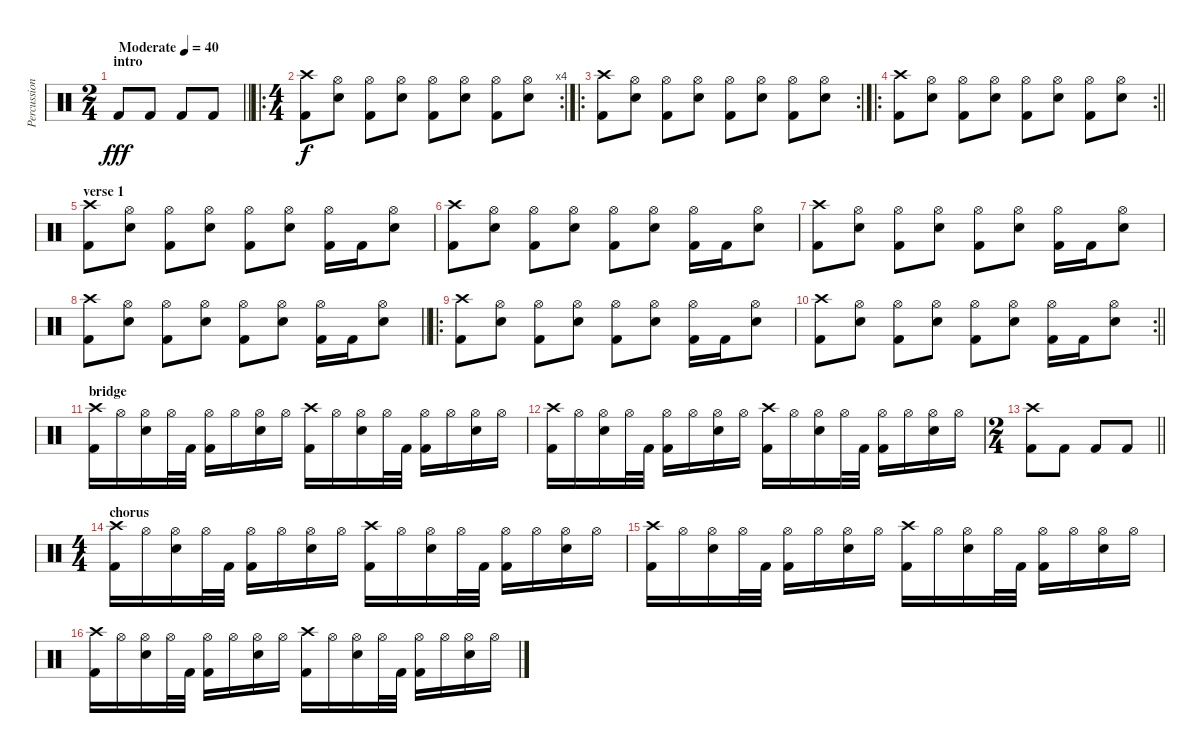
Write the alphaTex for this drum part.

\track ("Percussion" "Percussion") {instrument percussion}
\staff {score}
\articulation defaults
\ts (2 4)
\section ("" "intro")
\tempo (40 "Moderate")
\clef neutral
\barLineRight lightlight
\ks c "Kick (hit) 2".8{dy fff} "Kick (hit) 2".8 "Kick (hit) 2".8 "Kick (hit) 2".8
|
\ro
\rc 4
\ts (4 4)
("Crash high (hit)" "Kick (hit) 2").8{dy f} ("Hi-Hat (open)" "Snare (hit) 2").8 ("Hi-Hat (open)" "Kick (hit) 2").8 ("Hi-Hat (open)" "Snare (hit) 2").8 ("Hi-Hat (open)" "Kick (hit) 2").8 ("Hi-Hat (open)" "Snare (hit) 2").8 ("Hi-Hat (open)" "Kick (hit) 2").8 ("Hi-Hat (open)" "Snare (hit) 2").8 |
\ro
\rc 2
("Crash high (hit)" "Kick (hit) 2").8 ("Hi-Hat (open)" "Snare (hit) 2").8 ("Hi-Hat (open)" "Kick (hit) 2").8 ("Hi-Hat (open)" "Snare (hit) 2").8 ("Hi-Hat (open)" "Kick (hit) 2").8 ("Hi-Hat (open)" "Snare (hit) 2").8 ("Hi-Hat (open)" "Kick (hit) 2").8 ("Hi-Hat (open)" "Snare (hit) 2").8 |
\ro
\rc 2
\barLineRight lightlight
("Crash high (hit)" "Kick (hit) 2").8 ("Hi-Hat (open)" "Snare (hit) 2").8 ("Hi-Hat (open)" "Kick (hit) 2").8 ("Hi-Hat (open)" "Snare (hit) 2").8 ("Hi-Hat (open)" "Kick (hit) 2").8 ("Hi-Hat (open)" "Snare (hit) 2").8 ("Hi-Hat (open)" "Kick (hit) 2").8 ("Hi-Hat (open)" "Snare (hit) 2").8 |
\section ("" "verse 1")
("Crash high (hit)" "Kick (hit) 2").8 ("Hi-Hat (open)" "Snare (hit) 2").8 ("Hi-Hat (open)" "Kick (hit) 2").8 ("Hi-Hat (open)" "Snare (hit) 2").8 ("Hi-Hat (open)" "Kick (hit) 2").8 ("Hi-Hat (open)" "Snare (hit) 2").8 ("Hi-Hat (open)" "Kick (hit) 2").16 "Kick (hit) 2".16 ("Hi-Hat (open)" "Snare (hit) 2").8 |
("Crash high (hit)" "Kick (hit) 2").8 ("Hi-Hat (open)" "Snare (hit) 2").8 ("Hi-Hat (open)" "Kick (hit) 2").8 ("Hi-Hat (open)" "Snare (hit) 2").8 ("Hi-Hat (open)" "Kick (hit) 2").8 ("Hi-Hat (open)" "Snare (hit) 2").8 ("Hi-Hat (open)" "Kick (hit) 2").16 "Kick (hit) 2".16 ("Hi-Hat (open)" "Snare (hit) 2").8 |
("Crash high (hit)" "Kick (hit) 2").8 ("Hi-Hat (open)" "Snare (hit) 2").8 ("Hi-Hat (open)" "Kick (hit) 2").8 ("Hi-Hat (open)" "Snare (hit) 2").8 ("Hi-Hat (open)" "Kick (hit) 2").8 ("Hi-Hat (open)" "Snare (hit) 2").8 ("Hi-Hat (open)" "Kick (hit) 2").16 "Kick (hit) 2".16 ("Hi-Hat (open)" "Snare (hit) 2").8 |
\barLineRight lightlight
("Crash high (hit)" "Kick (hit) 2").8 ("Hi-Hat (open)" "Snare (hit) 2").8 ("Hi-Hat (open)" "Kick (hit) 2").8 ("Hi-Hat (open)" "Snare (hit) 2").8 ("Hi-Hat (open)" "Kick (hit) 2").8 ("Hi-Hat (open)" "Snare (hit) 2").8 ("Hi-Hat (open)" "Kick (hit) 2").16 "Kick (hit) 2".16 ("Hi-Hat (open)" "Snare (hit) 2").8 |
\ro
("Crash high (hit)" "Kick (hit) 2").8 ("Hi-Hat (open)" "Snare (hit) 2").8 ("Hi-Hat (open)" "Kick (hit) 2").8 ("Hi-Hat (open)" "Snare (hit) 2").8 ("Hi-Hat (open)" "Kick (hit) 2").8 ("Hi-Hat (open)" "Snare (hit) 2").8 ("Hi-Hat (open)" "Kick (hit) 2").16 "Kick (hit) 2".16 ("Hi-Hat (open)" "Snare (hit) 2").8 |
\rc 2
\barLineRight lightlight
("Crash high (hit)" "Kick (hit) 2").8 ("Hi-Hat (open)" "Snare (hit) 2").8 ("Hi-Hat (open)" "Kick (hit) 2").8 ("Hi-Hat (open)" "Snare (hit) 2").8 ("Hi-Hat (open)" "Kick (hit) 2").8 ("Hi-Hat (open)" "Snare (hit) 2").8 ("Hi-Hat (open)" "Kick (hit) 2").16 "Kick (hit) 2".16 ("Hi-Hat (open)" "Snare (hit) 2").8 |
\section ("" "bridge")
("Crash high (hit)" "Kick (hit) 2").16 "Hi-Hat (open)".16 ("Hi-Hat (open)" "Snare (hit) 2").16 "Hi-Hat (open)".32 "Kick (hit) 2".32 ("Hi-Hat (open)" "Kick (hit) 2").16 "Hi-Hat (open)".16 ("Hi-Hat (open)" "Snare (hit) 2").16 "Hi-Hat (open)".16 ("Crash high (hit)" "Kick (hit) 2").16 "Hi-Hat (open)".16 ("Hi-Hat (open)" "Snare (hit) 2").16 "Hi-Hat (open)".32 "Kick (hit) 2".32 ("Hi-Hat (open)" "Kick (hit) 2").16 "Hi-Hat (open)".16 ("Hi-Hat (open)" "Snare (hit) 2").16 "Hi-Hat (open)".16 |
("Crash high (hit)" "Kick (hit) 2").16 "Hi-Hat (open)".16 ("Hi-Hat (open)" "Snare (hit) 2").16 "Hi-Hat (open)".32 "Kick (hit) 2".32 ("Hi-Hat (open)" "Kick (hit) 2").16 "Hi-Hat (open)".16 ("Hi-Hat (open)" "Snare (hit) 2").16 "Hi-Hat (open)".16 ("Crash high (hit)" "Kick (hit) 2").16 "Hi-Hat (open)".16 ("Hi-Hat (open)" "Snare (hit) 2").16 "Hi-Hat (open)".32 "Kick (hit) 2".32 ("Hi-Hat (open)" "Kick (hit) 2").16 "Hi-Hat (open)".16 ("Hi-Hat (open)" "Snare (hit) 2").16 "Hi-Hat (open)".16 |
\ts (2 4)
\barLineRight lightlight
("Crash high (hit)" "Kick (hit) 2").8 "Kick (hit) 2".8 "Kick (hit) 2".8 "Kick (hit) 2".8 |
\ts (4 4)
\section ("" "chorus")
("Crash high (hit)" "Kick (hit) 2").16 "Hi-Hat (open)".16 ("Hi-Hat (open)" "Snare (hit) 2").16 "Hi-Hat (open)".32 "Kick (hit) 2".32 ("Hi-Hat (open)" "Kick (hit) 2").16 "Hi-Hat (open)".16 ("Hi-Hat (open)" "Snare (hit) 2").16 "Hi-Hat (open)".16 ("Crash high (hit)" "Kick (hit) 2").16 "Hi-Hat (open)".16 ("Hi-Hat (open)" "Snare (hit) 2").16 "Hi-Hat (open)".32 "Kick (hit) 2".32 ("Hi-Hat (open)" "Kick (hit) 2").16 "Hi-Hat (open)".16 ("Hi-Hat (open)" "Snare (hit) 2").16 "Hi-Hat (open)".16 |
("Crash high (hit)" "Kick (hit) 2").16 "Hi-Hat (open)".16 ("Hi-Hat (open)" "Snare (hit) 2").16 "Hi-Hat (open)".32 "Kick (hit) 2".32 ("Hi-Hat (open)" "Kick (hit) 2").16 "Hi-Hat (open)".16 ("Hi-Hat (open)" "Snare (hit) 2").16 "Hi-Hat (open)".16 ("Crash high (hit)" "Kick (hit) 2").16 "Hi-Hat (open)".16 ("Hi-Hat (open)" "Snare (hit) 2").16 "Hi-Hat (open)".32 "Kick (hit) 2".32 ("Hi-Hat (open)" "Kick (hit) 2").16 "Hi-Hat (open)".16 ("Hi-Hat (open)" "Snare (hit) 2").16 "Hi-Hat (open)".16 |
("Crash high (hit)" "Kick (hit) 2").16 "Hi-Hat (open)".16 ("Hi-Hat (open)" "Snare (hit) 2").16 "Hi-Hat (open)".32 "Kick (hit) 2".32 ("Hi-Hat (open)" "Kick (hit) 2").16 "Hi-Hat (open)".16 ("Hi-Hat (open)" "Snare (hit) 2").16 "Hi-Hat (open)".16 ("Crash high (hit)" "Kick (hit) 2").16 "Hi-Hat (open)".16 ("Hi-Hat (open)" "Snare (hit) 2").16 "Hi-Hat (open)".32 "Kick (hit) 2".32 ("Hi-Hat (open)" "Kick (hit) 2").16 "Hi-Hat (open)".16 ("Hi-Hat (open)" "Snare (hit) 2").16 "Hi-Hat (open)".16
